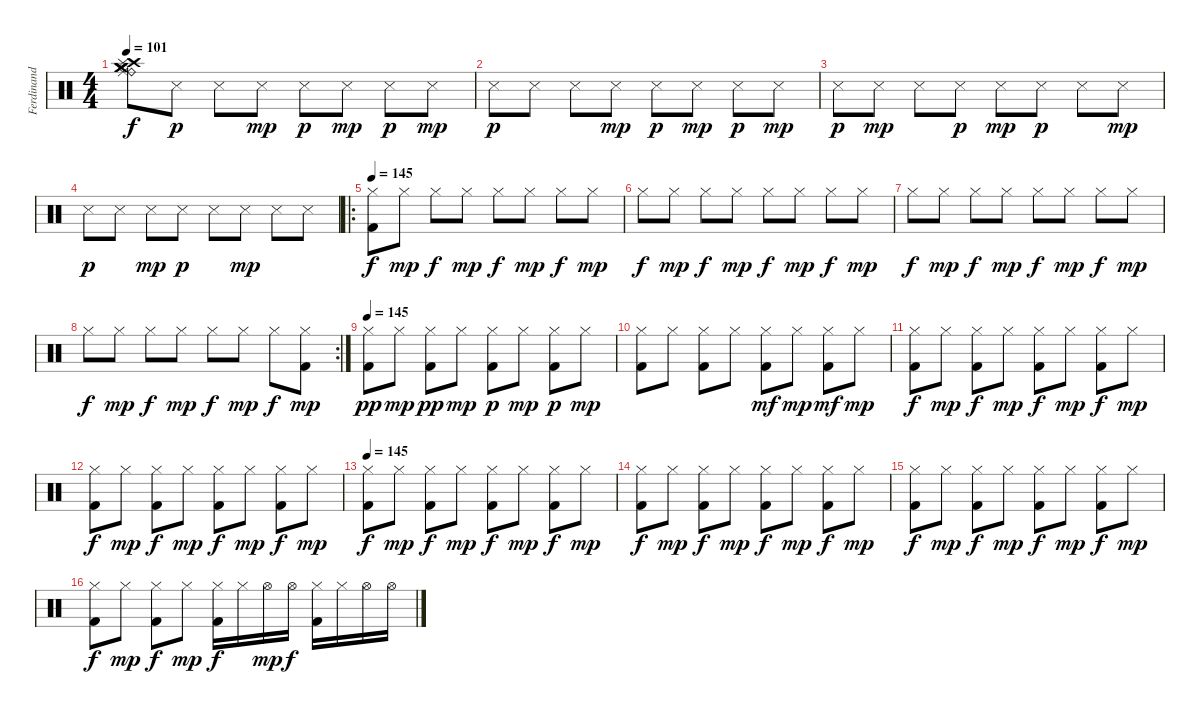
\track ("Ferdinand" "Ferdinand") {instrument percussion}
\staff {score}
\articulation defaults
\ts (4 4)
\tempo 101
\tempo 145
\tempo 101
\clef neutral
\ks c
("Crash medium (hit)" "Crash medium (hit)" "Crash high (hit)" "Splash (hit)" "Ride (bell)" "Ride (middle)").8{dy f} "Metronome (hit)".8{dy p} "Metronome (hit)".8 "Metronome (hit)".8{dy mp} "Metronome (hit)".8{dy p} "Metronome (hit)".8{dy mp} "Metronome (hit)".8{dy p} "Metronome (hit)".8{dy mp} |
"Metronome (hit)".8{dy p} "Metronome (hit)".8 "Metronome (hit)".8 "Metronome (hit)".8{dy mp} "Metronome (hit)".8{dy p} "Metronome (hit)".8{dy mp} "Metronome (hit)".8{dy p} "Metronome (hit)".8{dy mp} |
"Metronome (hit)".8{dy p} "Metronome (hit)".8{dy mp} "Metronome (hit)".8 "Metronome (hit)".8{dy p} "Metronome (hit)".8{dy mp} "Metronome (hit)".8{dy p} "Metronome (hit)".8 "Metronome (hit)".8{dy mp} |
"Metronome (hit)".8{dy p} "Metronome (hit)".8 "Metronome (hit)".8{dy mp} "Metronome (hit)".8{dy p} "Metronome (hit)".8 "Metronome (hit)".8{dy mp} "Metronome (hit)".8 "Metronome (hit)".8 |
\ro
\tempo 145
("Kick (hit) 2" "Hi-Hat (closed)").8{dy f} "Hi-Hat (closed)".8{dy mp} "Hi-Hat (closed)".8{dy f} "Hi-Hat (closed)".8{dy mp} "Hi-Hat (closed)".8{dy f} "Hi-Hat (closed)".8{dy mp} "Hi-Hat (closed)".8{dy f} "Hi-Hat (closed)".8{dy mp} |
"Hi-Hat (closed)".8{dy f} "Hi-Hat (closed)".8{dy mp} "Hi-Hat (closed)".8{dy f} "Hi-Hat (closed)".8{dy mp} "Hi-Hat (closed)".8{dy f} "Hi-Hat (closed)".8{dy mp} "Hi-Hat (closed)".8{dy f} "Hi-Hat (closed)".8{dy mp} |
"Hi-Hat (closed)".8{dy f} "Hi-Hat (closed)".8{dy mp} "Hi-Hat (closed)".8{dy f} "Hi-Hat (closed)".8{dy mp} "Hi-Hat (closed)".8{dy f} "Hi-Hat (closed)".8{dy mp} "Hi-Hat (closed)".8{dy f} "Hi-Hat (closed)".8{dy mp} |
\rc 2 "Hi-Hat (closed)".8{dy f} "Hi-Hat (closed)".8{dy mp} "Hi-Hat (closed)".8{dy f} "Hi-Hat (closed)".8{dy mp} "Hi-Hat (closed)".8{dy f} "Hi-Hat (closed)".8{dy mp} "Hi-Hat (closed)".8{dy f}
("Kick (hit) 2" "Hi-Hat (closed)").8{dy mp} |
\tempo 145
("Kick (hit) 2" "Hi-Hat (closed)").8{dy pp} "Hi-Hat (closed)".8{dy mp} ("Kick (hit) 2" "Hi-Hat (closed)").8{dy pp} "Hi-Hat (closed)".8{dy mp} ("Kick (hit) 2" "Hi-Hat (closed)").8{dy p} "Hi-Hat (closed)".8{dy mp} ("Kick (hit) 2" "Hi-Hat (closed)").8{dy p} "Hi-Hat (closed)".8{dy mp} |
("Kick (hit) 2" "Hi-Hat (closed)").8 "Hi-Hat (closed)".8 ("Kick (hit) 2" "Hi-Hat (closed)").8 "Hi-Hat (closed)".8 ("Kick (hit) 2" "Hi-Hat (closed)").8{dy mf} "Hi-Hat (closed)".8{dy mp} ("Kick (hit) 2" "Hi-Hat (closed)").8{dy mf} "Hi-Hat (closed)".8{dy mp} |
("Kick (hit) 2" "Hi-Hat (closed)").8{dy f} "Hi-Hat (closed)".8{dy mp} ("Kick (hit) 2" "Hi-Hat (closed)").8{dy f} "Hi-Hat (closed)".8{dy mp} ("Kick (hit) 2" "Hi-Hat (closed)").8{dy f} "Hi-Hat (closed)".8{dy mp} ("Kick (hit) 2" "Hi-Hat (closed)").8{dy f} "Hi-Hat (closed)".8{dy mp} |
("Kick (hit) 2" "Hi-Hat (closed)").8{dy f} "Hi-Hat (closed)".8{dy mp} ("Kick (hit) 2" "Hi-Hat (closed)").8{dy f} "Hi-Hat (closed)".8{dy mp} ("Kick (hit) 2" "Hi-Hat (closed)").8{dy f} "Hi-Hat (closed)".8{dy mp} ("Kick (hit) 2" "Hi-Hat (closed)").8{dy f} "Hi-Hat (closed)".8{dy mp} |
\tempo 145
("Kick (hit) 2" "Hi-Hat (closed)").8{dy f} "Hi-Hat (closed)".8{dy mp} ("Kick (hit) 2" "Hi-Hat (closed)").8{dy f} "Hi-Hat (closed)".8{dy mp} ("Kick (hit) 2" "Hi-Hat (closed)").8{dy f} "Hi-Hat (closed)".8{dy mp} ("Kick (hit) 2" "Hi-Hat (closed)").8{dy f} "Hi-Hat (closed)".8{dy mp} |
("Kick (hit) 2" "Hi-Hat (closed)").8{dy f} "Hi-Hat (closed)".8{dy mp} ("Kick (hit) 2" "Hi-Hat (closed)").8{dy f} "Hi-Hat (closed)".8{dy mp} ("Kick (hit) 2" "Hi-Hat (closed)").8{dy f} "Hi-Hat (closed)".8{dy mp} ("Kick (hit) 2" "Hi-Hat (closed)").8{dy f} "Hi-Hat (closed)".8{dy mp} |
("Kick (hit) 2" "Hi-Hat (closed)").8{dy f} "Hi-Hat (closed)".8{dy mp} ("Kick (hit) 2" "Hi-Hat (closed)").8{dy f} "Hi-Hat (closed)".8{dy mp} ("Kick (hit) 2" "Hi-Hat (closed)").8{dy f} "Hi-Hat (closed)".8{dy mp} ("Kick (hit) 2" "Hi-Hat (closed)").8{dy f} "Hi-Hat (closed)".8{dy mp} |
("Kick (hit) 2" "Hi-Hat (closed)").8{dy f} "Hi-Hat (closed)".8{dy mp} ("Kick (hit) 2" "Hi-Hat (closed)").8{dy f} "Hi-Hat (closed)".8{dy mp} ("Kick (hit) 2" "Hi-Hat (closed)").16{dy f} "Hi-Hat (closed)".16 "Hi-Hat (open)".16{dy mp} "Hi-Hat (open)".16{dy f} ("Kick (hit) 2" "Hi-Hat (closed)").16 "Hi-Hat (closed)".16 "Hi-Hat (open)".16 "Hi-Hat (open)".16
